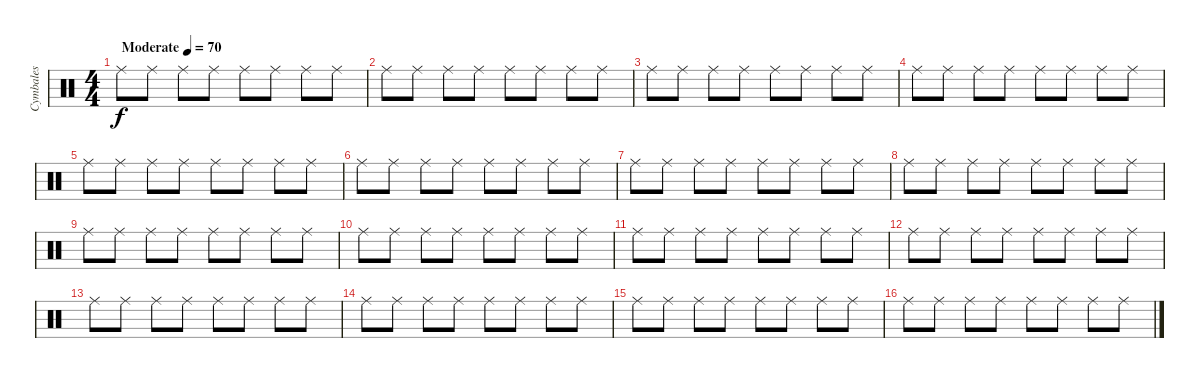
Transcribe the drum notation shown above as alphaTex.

\track ("Cymbales" "Cymbales") {instrument percussion}
\staff {score}
\articulation defaults
\ts (4 4)
\tempo (70 "Moderate")
\clef neutral
\ks c "Ride (middle)".8{dy f} "Ride (middle)".8 "Ride (middle)".8 "Ride (middle)".8 "Ride (middle)".8 "Ride (middle)".8 "Ride (middle)".8 "Ride (middle)".8
|
"Ride (middle)".8 "Ride (middle)".8 "Ride (middle)".8 "Ride (middle)".8 "Ride (middle)".8 "Ride (middle)".8 "Ride (middle)".8 "Ride (middle)".8 |
"Ride (middle)".8 "Ride (middle)".8 "Ride (middle)".8 "Ride (middle)".8 "Ride (middle)".8 "Ride (middle)".8 "Ride (middle)".8 "Ride (middle)".8 |
"Ride (middle)".8 "Ride (middle)".8 "Ride (middle)".8 "Ride (middle)".8 "Ride (middle)".8 "Ride (middle)".8 "Ride (middle)".8 "Ride (middle)".8 |
"Ride (middle)".8 "Ride (middle)".8 "Ride (middle)".8 "Ride (middle)".8 "Ride (middle)".8 "Ride (middle)".8 "Ride (middle)".8 "Ride (middle)".8 |
"Ride (middle)".8 "Ride (middle)".8 "Ride (middle)".8 "Ride (middle)".8 "Ride (middle)".8 "Ride (middle)".8 "Ride (middle)".8 "Ride (middle)".8 |
"Ride (middle)".8 "Ride (middle)".8 "Ride (middle)".8 "Ride (middle)".8 "Ride (middle)".8 "Ride (middle)".8 "Ride (middle)".8 "Ride (middle)".8 |
"Ride (middle)".8 "Ride (middle)".8 "Ride (middle)".8 "Ride (middle)".8 "Ride (middle)".8 "Ride (middle)".8 "Ride (middle)".8 "Ride (middle)".8 |
"Ride (middle)".8 "Ride (middle)".8 "Ride (middle)".8 "Ride (middle)".8 "Ride (middle)".8 "Ride (middle)".8 "Ride (middle)".8 "Ride (middle)".8 |
"Ride (middle)".8 "Ride (middle)".8 "Ride (middle)".8 "Ride (middle)".8 "Ride (middle)".8 "Ride (middle)".8 "Ride (middle)".8 "Ride (middle)".8 |
"Ride (middle)".8 "Ride (middle)".8 "Ride (middle)".8 "Ride (middle)".8 "Ride (middle)".8 "Ride (middle)".8 "Ride (middle)".8 "Ride (middle)".8 |
"Ride (middle)".8 "Ride (middle)".8 "Ride (middle)".8 "Ride (middle)".8 "Ride (middle)".8 "Ride (middle)".8 "Ride (middle)".8 "Ride (middle)".8 |
"Ride (middle)".8 "Ride (middle)".8 "Ride (middle)".8 "Ride (middle)".8 "Ride (middle)".8 "Ride (middle)".8 "Ride (middle)".8 "Ride (middle)".8 |
"Ride (middle)".8 "Ride (middle)".8 "Ride (middle)".8 "Ride (middle)".8 "Ride (middle)".8 "Ride (middle)".8 "Ride (middle)".8 "Ride (middle)".8 |
"Ride (middle)".8 "Ride (middle)".8 "Ride (middle)".8 "Ride (middle)".8 "Ride (middle)".8 "Ride (middle)".8 "Ride (middle)".8 "Ride (middle)".8 |
"Ride (middle)".8 "Ride (middle)".8 "Ride (middle)".8 "Ride (middle)".8 "Ride (middle)".8 "Ride (middle)".8 "Ride (middle)".8 "Ride (middle)".8
